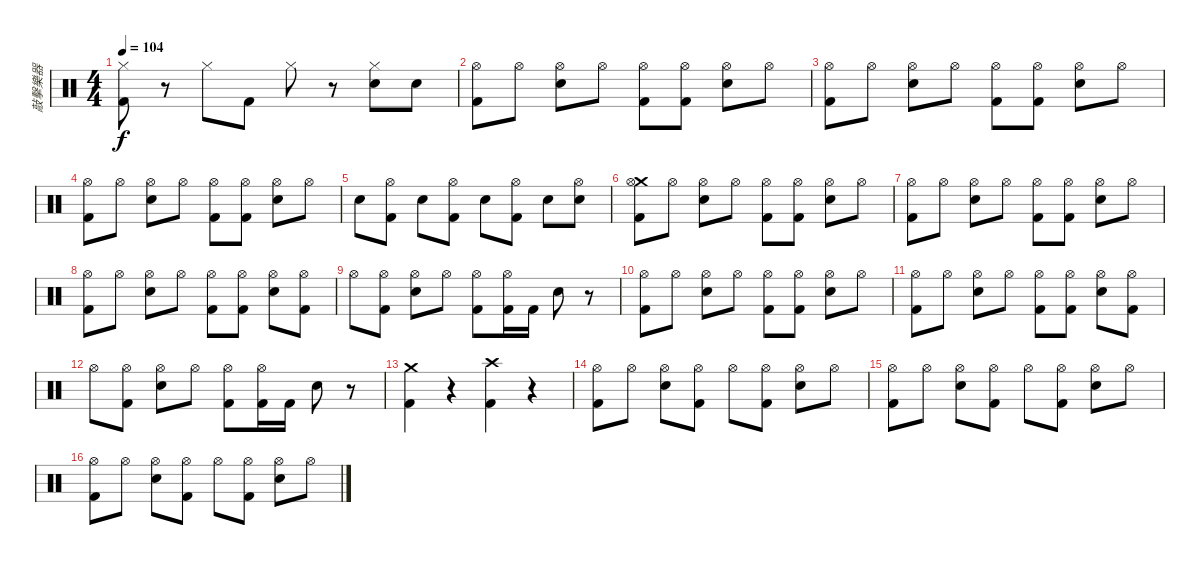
\track ("敲擊樂器" "敲擊樂器") {instrument percussion}
\staff {score}
\articulation defaults
\ts (4 4)
\tempo 104
\clef neutral
\ks c
("Hi-Hat (closed)" "Kick (hit) 2").8{dy f} r.8 "Hi-Hat (closed)".8 "Kick (hit) 2".8 "Hi-Hat (closed)".8 r.8 ("Hi-Hat (closed)" "Electric Snare (hit)").8 "Electric Snare (hit)".8 |
("Hi-Hat (open)" "Kick (hit) 2").8 "Hi-Hat (open)".8 ("Hi-Hat (open)" "Electric Snare (hit)").8 "Hi-Hat (open)".8 ("Hi-Hat (open)" "Kick (hit) 2").8 ("Hi-Hat (open)" "Kick (hit) 2").8 ("Hi-Hat (open)" "Electric Snare (hit)").8 "Hi-Hat (open)".8 |
("Hi-Hat (open)" "Kick (hit) 2").8 "Hi-Hat (open)".8 ("Hi-Hat (open)" "Electric Snare (hit)").8 "Hi-Hat (open)".8 ("Hi-Hat (open)" "Kick (hit) 2").8 ("Hi-Hat (open)" "Kick (hit) 2").8 ("Hi-Hat (open)" "Electric Snare (hit)").8 "Hi-Hat (open)".8 |
("Hi-Hat (open)" "Kick (hit) 2").8 "Hi-Hat (open)".8 ("Hi-Hat (open)" "Electric Snare (hit)").8 "Hi-Hat (open)".8 ("Hi-Hat (open)" "Kick (hit) 2").8 ("Hi-Hat (open)" "Kick (hit) 2").8 ("Hi-Hat (open)" "Electric Snare (hit)").8 "Hi-Hat (open)".8 |
"Electric Snare (hit)".8 ("Hi-Hat (open)" "Kick (hit) 2").8 "Electric Snare (hit)".8 ("Hi-Hat (open)" "Kick (hit) 2").8 "Electric Snare (hit)".8 ("Hi-Hat (open)" "Kick (hit) 2").8 "Electric Snare (hit)".8 ("Hi-Hat (open)" "Electric Snare (hit)").8 |
("Crash medium (hit)" "Hi-Hat (open)" "Kick (hit) 2").8 "Hi-Hat (open)".8 ("Hi-Hat (open)" "Electric Snare (hit)").8 "Hi-Hat (open)".8 ("Hi-Hat (open)" "Kick (hit) 2").8 ("Hi-Hat (open)" "Kick (hit) 2").8 ("Hi-Hat (open)" "Electric Snare (hit)").8 "Hi-Hat (open)".8 |
("Hi-Hat (open)" "Kick (hit) 2").8 "Hi-Hat (open)".8 ("Hi-Hat (open)" "Electric Snare (hit)").8 "Hi-Hat (open)".8 ("Hi-Hat (open)" "Kick (hit) 2").8 ("Hi-Hat (open)" "Kick (hit) 2").8 ("Hi-Hat (open)" "Electric Snare (hit)").8 "Hi-Hat (open)".8 |
("Hi-Hat (open)" "Kick (hit) 2").8 "Hi-Hat (open)".8 ("Hi-Hat (open)" "Electric Snare (hit)").8 "Hi-Hat (open)".8 ("Hi-Hat (open)" "Kick (hit) 2").8 ("Hi-Hat (open)" "Kick (hit) 2").8 ("Hi-Hat (open)" "Electric Snare (hit)").8 ("Hi-Hat (open)" "Kick (hit) 2").8 |
"Hi-Hat (open)".8 ("Hi-Hat (open)" "Kick (hit) 2").8 ("Hi-Hat (open)" "Electric Snare (hit)").8 "Hi-Hat (open)".8 ("Hi-Hat (open)" "Kick (hit) 2").8 ("Hi-Hat (open)" "Kick (hit) 2").16 "Kick (hit) 2".16 "Electric Snare (hit)".8 r.8 |
("Hi-Hat (open)" "Kick (hit) 2").8 "Hi-Hat (open)".8 ("Hi-Hat (open)" "Electric Snare (hit)").8 "Hi-Hat (open)".8 ("Hi-Hat (open)" "Kick (hit) 2").8 ("Hi-Hat (open)" "Kick (hit) 2").8 ("Hi-Hat (open)" "Electric Snare (hit)").8 "Hi-Hat (open)".8 |
("Hi-Hat (open)" "Kick (hit) 2").8 "Hi-Hat (open)".8 ("Hi-Hat (open)" "Electric Snare (hit)").8 "Hi-Hat (open)".8 ("Hi-Hat (open)" "Kick (hit) 2").8 ("Hi-Hat (open)" "Kick (hit) 2").8 ("Hi-Hat (open)" "Electric Snare (hit)").8 ("Hi-Hat (open)" "Kick (hit) 2").8 |
"Hi-Hat (open)".8 ("Hi-Hat (open)" "Kick (hit) 2").8 ("Hi-Hat (open)" "Electric Snare (hit)").8 "Hi-Hat (open)".8 ("Hi-Hat (open)" "Kick (hit) 2").8 ("Hi-Hat (open)" "Kick (hit) 2").16 "Kick (hit) 2".16 "Electric Snare (hit)".8 r.8 |
("Crash medium (hit)" "Kick (hit) 2").4 r.4 ("Crash high (hit)" "Kick (hit) 2").4 r.4 |
("Hi-Hat (open)" "Kick (hit) 2").8 "Hi-Hat (open)".8 ("Hi-Hat (open)" "Electric Snare (hit)").8 ("Hi-Hat (open)" "Kick (hit) 2").8 "Hi-Hat (open)".8 ("Hi-Hat (open)" "Kick (hit) 2").8 ("Hi-Hat (open)" "Electric Snare (hit)").8 "Hi-Hat (open)".8 |
("Hi-Hat (open)" "Kick (hit) 2").8 "Hi-Hat (open)".8 ("Hi-Hat (open)" "Electric Snare (hit)").8 ("Hi-Hat (open)" "Kick (hit) 2").8 "Hi-Hat (open)".8 ("Hi-Hat (open)" "Kick (hit) 2").8 ("Hi-Hat (open)" "Electric Snare (hit)").8 "Hi-Hat (open)".8 |
("Hi-Hat (open)" "Kick (hit) 2").8 "Hi-Hat (open)".8 ("Hi-Hat (open)" "Electric Snare (hit)").8 ("Hi-Hat (open)" "Kick (hit) 2").8 "Hi-Hat (open)".8 ("Hi-Hat (open)" "Kick (hit) 2").8 ("Hi-Hat (open)" "Electric Snare (hit)").8 "Hi-Hat (open)".8
